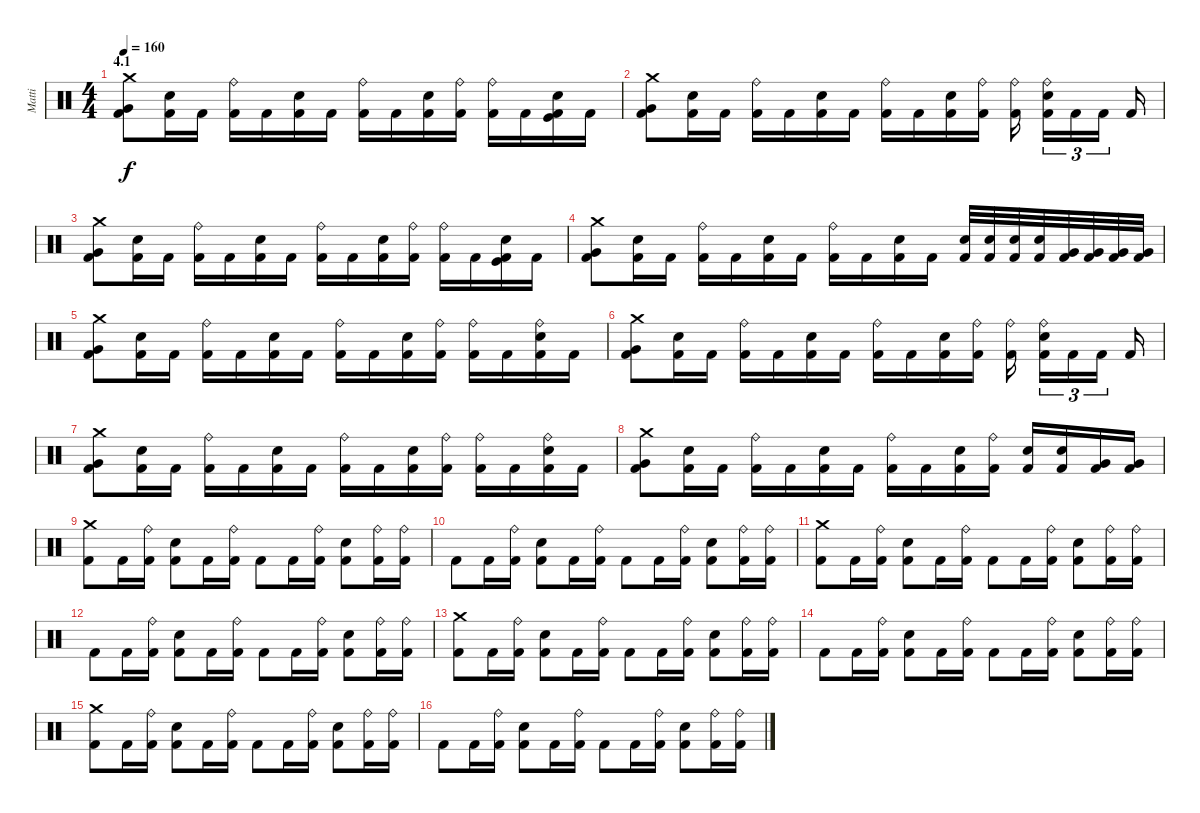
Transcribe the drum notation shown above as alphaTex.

\track ("Matti" "Matti") {instrument percussion}
\staff {score}
\articulation defaults
\ts (4 4)
\section ("" "4.1")
\tempo 160
\clef neutral
\ks c
("Crash medium (hit)" "Very Low Tom (hit)" "Kick (hit) 2").8{dy f} ("Electric Snare (hit)" "Kick (hit) 2").16 "Kick (hit) 2".16 ("Ride (bell)" "Kick (hit) 2").16 "Kick (hit) 2".16 ("Electric Snare (hit)" "Kick (hit) 2").16 "Kick (hit) 2".16 ("Ride (bell)" "Kick (hit) 2").16 "Kick (hit) 2".16 ("Electric Snare (hit)" "Kick (hit) 2").16 ("Ride (bell)" "Kick (hit) 2").16 ("Ride (bell)" "Kick (hit) 2").16 "Kick (hit) 2".16 ("Kick (hit)" "Electric Snare (hit)" "Kick (hit) 2").16 "Kick (hit) 2".16 |
("Crash medium (hit)" "Very Low Tom (hit)" "Kick (hit) 2").8 ("Electric Snare (hit)" "Kick (hit) 2").16 "Kick (hit) 2".16 ("Ride (bell)" "Kick (hit) 2").16 "Kick (hit) 2".16 ("Electric Snare (hit)" "Kick (hit) 2").16 "Kick (hit) 2".16 ("Ride (bell)" "Kick (hit) 2").16 "Kick (hit) 2".16 ("Electric Snare (hit)" "Kick (hit) 2").16 ("Ride (bell)" "Kick (hit) 2").16 ("Ride (bell)" "Kick (hit) 2").16{beam splitsecondary} ("Ride (bell)" "Electric Snare (hit)" "Kick (hit) 2").16{tu (3 2)} "Kick (hit) 2".16{tu (3 2)} "Kick (hit) 2".16{tu (3 2) beam splitsecondary} "Kick (hit) 2".16 |
("Crash medium (hit)" "Very Low Tom (hit)" "Kick (hit) 2").8 ("Electric Snare (hit)" "Kick (hit) 2").16 "Kick (hit) 2".16 ("Ride (bell)" "Kick (hit) 2").16 "Kick (hit) 2".16 ("Electric Snare (hit)" "Kick (hit) 2").16 "Kick (hit) 2".16 ("Ride (bell)" "Kick (hit) 2").16 "Kick (hit) 2".16 ("Electric Snare (hit)" "Kick (hit) 2").16 ("Ride (bell)" "Kick (hit) 2").16 ("Ride (bell)" "Kick (hit) 2").16 "Kick (hit) 2".16 ("Kick (hit)" "Electric Snare (hit)" "Kick (hit) 2").16 "Kick (hit) 2".16 |
("Crash medium (hit)" "Very Low Tom (hit)" "Kick (hit) 2").8 ("Electric Snare (hit)" "Kick (hit) 2").16 "Kick (hit) 2".16 ("Ride (bell)" "Kick (hit) 2").16 "Kick (hit) 2".16 ("Electric Snare (hit)" "Kick (hit) 2").16 "Kick (hit) 2".16 ("Ride (bell)" "Kick (hit) 2").16 "Kick (hit) 2".16 ("Electric Snare (hit)" "Kick (hit) 2").16 "Kick (hit) 2".16 ("Electric Snare (hit)" "Kick (hit) 2").32 ("Electric Snare (hit)" "Kick (hit) 2").32 ("Electric Snare (hit)" "Kick (hit) 2").32 ("Electric Snare (hit)" "Kick (hit) 2").32 ("Very Low Tom (hit)" "Kick (hit) 2").32 ("Very Low Tom (hit)" "Kick (hit) 2").32 ("Very Low Tom (hit)" "Kick (hit) 2").32 ("Very Low Tom (hit)" "Kick (hit) 2").32 |
("Crash medium (hit)" "Very Low Tom (hit)" "Kick (hit) 2").8 ("Electric Snare (hit)" "Kick (hit) 2").16 "Kick (hit) 2".16 ("Ride (bell)" "Kick (hit) 2").16 "Kick (hit) 2".16 ("Electric Snare (hit)" "Kick (hit) 2").16 "Kick (hit) 2".16 ("Ride (bell)" "Kick (hit) 2").16 "Kick (hit) 2".16 ("Electric Snare (hit)" "Kick (hit) 2").16 ("Ride (bell)" "Kick (hit) 2").16 ("Ride (bell)" "Kick (hit) 2").16 "Kick (hit) 2".16 ("Ride (bell)" "Electric Snare (hit)" "Kick (hit) 2").16 "Kick (hit) 2".16 |
("Crash medium (hit)" "Very Low Tom (hit)" "Kick (hit) 2").8 ("Electric Snare (hit)" "Kick (hit) 2").16 "Kick (hit) 2".16 ("Ride (bell)" "Kick (hit) 2").16 "Kick (hit) 2".16 ("Electric Snare (hit)" "Kick (hit) 2").16 "Kick (hit) 2".16 ("Ride (bell)" "Kick (hit) 2").16 "Kick (hit) 2".16 ("Electric Snare (hit)" "Kick (hit) 2").16 ("Ride (bell)" "Kick (hit) 2").16 ("Ride (bell)" "Kick (hit) 2").16{beam splitsecondary} ("Ride (bell)" "Electric Snare (hit)" "Kick (hit) 2").16{tu (3 2)} "Kick (hit) 2".16{tu (3 2)} "Kick (hit) 2".16{tu (3 2) beam splitsecondary} "Kick (hit) 2".16 |
("Crash medium (hit)" "Very Low Tom (hit)" "Kick (hit) 2").8 ("Electric Snare (hit)" "Kick (hit) 2").16 "Kick (hit) 2".16 ("Ride (bell)" "Kick (hit) 2").16 "Kick (hit) 2".16 ("Electric Snare (hit)" "Kick (hit) 2").16 "Kick (hit) 2".16 ("Ride (bell)" "Kick (hit) 2").16 "Kick (hit) 2".16 ("Electric Snare (hit)" "Kick (hit) 2").16 ("Ride (bell)" "Kick (hit) 2").16 ("Ride (bell)" "Kick (hit) 2").16 "Kick (hit) 2".16 ("Ride (bell)" "Electric Snare (hit)" "Kick (hit) 2").16 "Kick (hit) 2".16 |
("Crash medium (hit)" "Very Low Tom (hit)" "Kick (hit) 2").8 ("Electric Snare (hit)" "Kick (hit) 2").16 "Kick (hit) 2".16 ("Ride (bell)" "Kick (hit) 2").16 "Kick (hit) 2".16 ("Electric Snare (hit)" "Kick (hit) 2").16 "Kick (hit) 2".16 ("Ride (bell)" "Kick (hit) 2").16 "Kick (hit) 2".16 ("Electric Snare (hit)" "Kick (hit) 2").16 ("Ride (bell)" "Kick (hit) 2").16 ("Electric Snare (hit)" "Kick (hit) 2").16 ("Electric Snare (hit)" "Kick (hit) 2").16 ("Very Low Tom (hit)" "Kick (hit) 2").16 ("Very Low Tom (hit)" "Kick (hit) 2").16 |
("Crash medium (hit)" "Kick (hit) 2").8 "Kick (hit) 2".16 ("Ride (bell)" "Kick (hit) 2").16 ("Electric Snare (hit)" "Kick (hit) 2").8 "Kick (hit) 2".16 ("Ride (bell)" "Kick (hit) 2").16 "Kick (hit) 2".8 "Kick (hit) 2".16 ("Ride (bell)" "Kick (hit) 2").16 ("Electric Snare (hit)" "Kick (hit) 2").8 ("Ride (bell)" "Kick (hit) 2").16 ("Ride (bell)" "Kick (hit) 2").16 |
"Kick (hit) 2".8 "Kick (hit) 2".16 ("Ride (bell)" "Kick (hit) 2").16 ("Electric Snare (hit)" "Kick (hit) 2").8 "Kick (hit) 2".16 ("Ride (bell)" "Kick (hit) 2").16 "Kick (hit) 2".8 "Kick (hit) 2".16 ("Ride (bell)" "Kick (hit) 2").16 ("Electric Snare (hit)" "Kick (hit) 2").8 ("Ride (bell)" "Kick (hit) 2").16 ("Ride (bell)" "Kick (hit) 2").16 |
("Crash medium (hit)" "Kick (hit) 2").8 "Kick (hit) 2".16 ("Ride (bell)" "Kick (hit) 2").16 ("Electric Snare (hit)" "Kick (hit) 2").8 "Kick (hit) 2".16 ("Ride (bell)" "Kick (hit) 2").16 "Kick (hit) 2".8 "Kick (hit) 2".16 ("Ride (bell)" "Kick (hit) 2").16 ("Electric Snare (hit)" "Kick (hit) 2").8 ("Ride (bell)" "Kick (hit) 2").16 ("Ride (bell)" "Kick (hit) 2").16 |
"Kick (hit) 2".8 "Kick (hit) 2".16 ("Ride (bell)" "Kick (hit) 2").16 ("Electric Snare (hit)" "Kick (hit) 2").8 "Kick (hit) 2".16 ("Ride (bell)" "Kick (hit) 2").16 "Kick (hit) 2".8 "Kick (hit) 2".16 ("Ride (bell)" "Kick (hit) 2").16 ("Electric Snare (hit)" "Kick (hit) 2").8 ("Ride (bell)" "Kick (hit) 2").16 ("Ride (bell)" "Kick (hit) 2").16 |
("Crash medium (hit)" "Kick (hit) 2").8 "Kick (hit) 2".16 ("Ride (bell)" "Kick (hit) 2").16 ("Electric Snare (hit)" "Kick (hit) 2").8 "Kick (hit) 2".16 ("Ride (bell)" "Kick (hit) 2").16 "Kick (hit) 2".8 "Kick (hit) 2".16 ("Ride (bell)" "Kick (hit) 2").16 ("Electric Snare (hit)" "Kick (hit) 2").8 ("Ride (bell)" "Kick (hit) 2").16 ("Ride (bell)" "Kick (hit) 2").16 |
"Kick (hit) 2".8 "Kick (hit) 2".16 ("Ride (bell)" "Kick (hit) 2").16 ("Electric Snare (hit)" "Kick (hit) 2").8 "Kick (hit) 2".16 ("Ride (bell)" "Kick (hit) 2").16 "Kick (hit) 2".8 "Kick (hit) 2".16 ("Ride (bell)" "Kick (hit) 2").16 ("Electric Snare (hit)" "Kick (hit) 2").8 ("Ride (bell)" "Kick (hit) 2").16 ("Ride (bell)" "Kick (hit) 2").16 |
("Crash medium (hit)" "Kick (hit) 2").8 "Kick (hit) 2".16 ("Ride (bell)" "Kick (hit) 2").16 ("Electric Snare (hit)" "Kick (hit) 2").8 "Kick (hit) 2".16 ("Ride (bell)" "Kick (hit) 2").16 "Kick (hit) 2".8 "Kick (hit) 2".16 ("Ride (bell)" "Kick (hit) 2").16 ("Electric Snare (hit)" "Kick (hit) 2").8 ("Ride (bell)" "Kick (hit) 2").16 ("Ride (bell)" "Kick (hit) 2").16 |
"Kick (hit) 2".8 "Kick (hit) 2".16 ("Ride (bell)" "Kick (hit) 2").16 ("Electric Snare (hit)" "Kick (hit) 2").8 "Kick (hit) 2".16 ("Ride (bell)" "Kick (hit) 2").16 "Kick (hit) 2".8 "Kick (hit) 2".16 ("Ride (bell)" "Kick (hit) 2").16 ("Electric Snare (hit)" "Kick (hit) 2").8 ("Ride (bell)" "Kick (hit) 2").16 ("Ride (bell)" "Kick (hit) 2").16
